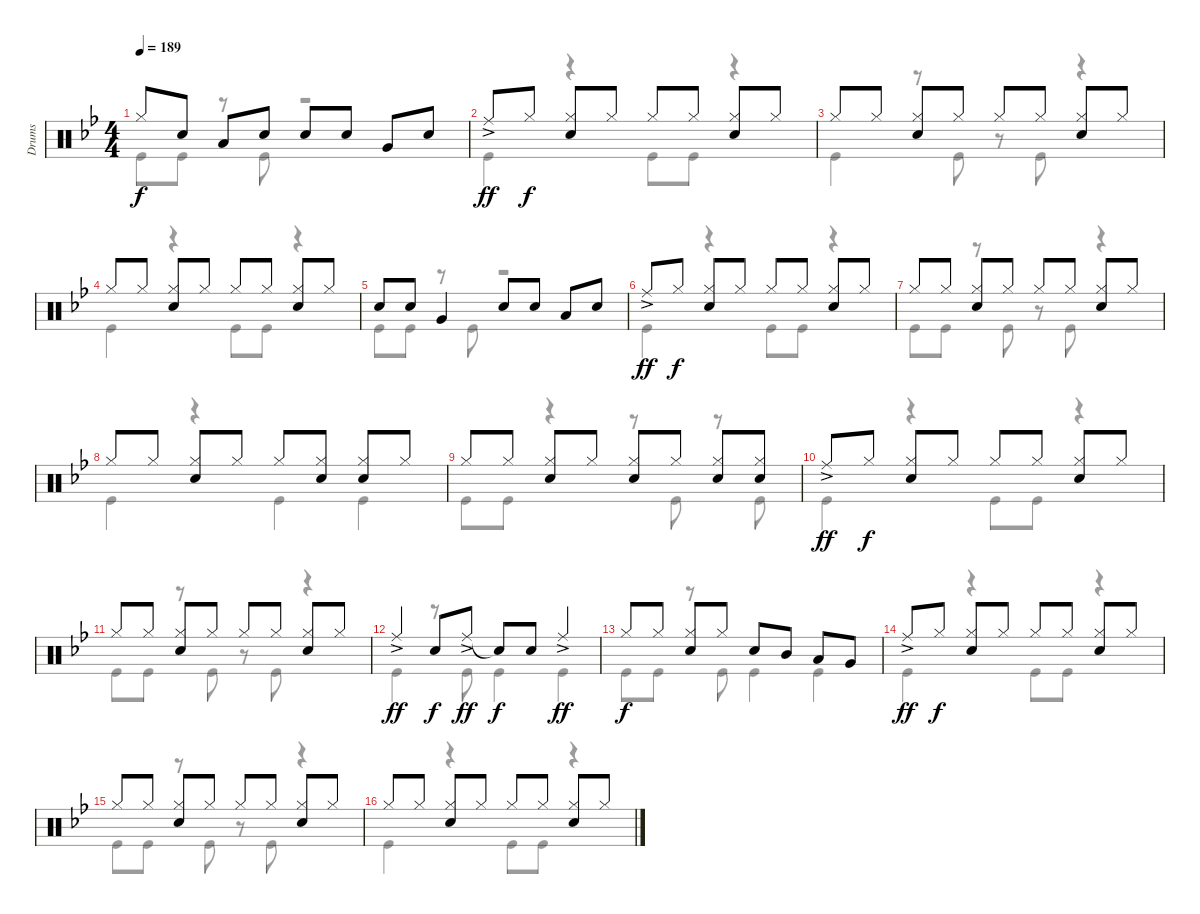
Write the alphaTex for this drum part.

\track ("Drums" "Drums") {instrument percussion}
\staff {score}
\articulation defaults
\voice
\ts (4 4)
\tempo 189
\clef neutral
\ks bb "Hi-Hat (closed)".8{dy f} "Snare (hit) 2".8 "Low Tom (hit)".8 "Snare (hit) 2".8 "Snare (hit) 2".8 "Snare (hit) 2".8 "Very Low Tom (hit)".8 "Snare (hit) 2".8
|
"Ride (middle)"{ac}.8{dy ff} "Hi-Hat (closed)".8{dy f} ("Hi-Hat (closed)" "Snare (hit) 2").8 "Hi-Hat (closed)".8 "Hi-Hat (closed)".8 "Hi-Hat (closed)".8 ("Hi-Hat (closed)" "Snare (hit) 2").8 "Hi-Hat (closed)".8 |
"Hi-Hat (closed)".8 "Hi-Hat (closed)".8 ("Hi-Hat (closed)" "Snare (hit) 2").8 "Hi-Hat (closed)".8 "Hi-Hat (closed)".8 "Hi-Hat (closed)".8 ("Hi-Hat (closed)" "Snare (hit) 2").8 "Hi-Hat (closed)".8 |
"Hi-Hat (closed)".8 "Hi-Hat (closed)".8 ("Hi-Hat (closed)" "Snare (hit) 2").8 "Hi-Hat (closed)".8 "Hi-Hat (closed)".8 "Hi-Hat (closed)".8 ("Hi-Hat (closed)" "Snare (hit) 2").8 "Hi-Hat (closed)".8 |
"Snare (hit) 2".8 "Snare (hit) 2".8 "Very Low Tom (hit)".4 "Snare (hit) 2".8 "Snare (hit) 2".8 "Low Tom (hit)".8 "Snare (hit) 2".8 |
"Ride (middle)"{ac}.8{dy ff} "Hi-Hat (closed)".8{dy f} ("Hi-Hat (closed)" "Snare (hit) 2").8 "Hi-Hat (closed)".8 "Hi-Hat (closed)".8 "Hi-Hat (closed)".8 ("Hi-Hat (closed)" "Snare (hit) 2").8 "Hi-Hat (closed)".8 |
"Hi-Hat (closed)".8 "Hi-Hat (closed)".8 ("Hi-Hat (closed)" "Snare (hit) 2").8 "Hi-Hat (closed)".8 "Hi-Hat (closed)".8 "Hi-Hat (closed)".8 ("Hi-Hat (closed)" "Snare (hit) 2").8 "Hi-Hat (closed)".8 |
"Hi-Hat (closed)".8 "Hi-Hat (closed)".8 ("Hi-Hat (closed)" "Snare (hit) 2").8 "Hi-Hat (closed)".8 "Hi-Hat (closed)".8 ("Hi-Hat (closed)" "Snare (hit) 2").8 ("Hi-Hat (closed)" "Snare (hit) 2").8 "Hi-Hat (closed)".8 |
"Hi-Hat (closed)".8 "Hi-Hat (closed)".8 ("Hi-Hat (closed)" "Snare (hit) 2").8 "Hi-Hat (closed)".8 ("Hi-Hat (closed)" "Snare (hit) 2").8 "Hi-Hat (closed)".8 ("Hi-Hat (closed)" "Snare (hit) 2").8 ("Hi-Hat (closed)" "Snare (hit) 2").8 |
"Ride (middle)"{ac}.8{dy ff} "Hi-Hat (closed)".8{dy f} ("Hi-Hat (closed)" "Snare (hit) 2").8 "Hi-Hat (closed)".8 "Hi-Hat (closed)".8 "Hi-Hat (closed)".8 ("Hi-Hat (closed)" "Snare (hit) 2").8 "Hi-Hat (closed)".8 |
"Hi-Hat (closed)".8 "Hi-Hat (closed)".8 ("Hi-Hat (closed)" "Snare (hit) 2").8 "Hi-Hat (closed)".8 "Hi-Hat (closed)".8 "Hi-Hat (closed)".8 ("Hi-Hat (closed)" "Snare (hit) 2").8 "Hi-Hat (closed)".8 |
"Ride (middle)"{ac}.4{dy ff} "Snare (hit) 2".8{dy f} "Ride (middle)"{ac}.8{dy ff} "Snare (hit)"{t}.8{dy f} "Snare (hit) 2".8 "Ride (middle)"{ac}.4{dy ff} |
"Hi-Hat (closed)".8{dy f} "Hi-Hat (closed)".8 ("Hi-Hat (closed)" "Snare (hit) 2").8 "Hi-Hat (closed)".8 "Snare (hit) 2".8 "Mid Tom (hit)".8 "Low Tom (hit)".8 "Very Low Tom (hit)".8 |
"Ride (middle)"{ac}.8{dy ff} "Hi-Hat (closed)".8{dy f} ("Hi-Hat (closed)" "Snare (hit) 2").8 "Hi-Hat (closed)".8 "Hi-Hat (closed)".8 "Hi-Hat (closed)".8 ("Hi-Hat (closed)" "Snare (hit) 2").8 "Hi-Hat (closed)".8 |
"Hi-Hat (closed)".8 "Hi-Hat (closed)".8 ("Hi-Hat (closed)" "Snare (hit) 2").8 "Hi-Hat (closed)".8 "Hi-Hat (closed)".8 "Hi-Hat (closed)".8 ("Hi-Hat (closed)" "Snare (hit) 2").8 "Hi-Hat (closed)".8 |
"Hi-Hat (closed)".8 "Hi-Hat (closed)".8 ("Hi-Hat (closed)" "Snare (hit) 2").8 "Hi-Hat (closed)".8 "Hi-Hat (closed)".8 "Hi-Hat (closed)".8 ("Hi-Hat (closed)" "Snare (hit) 2").8 "Hi-Hat (closed)".8
\voice
\clef neutral
\ottava regular
\simile none
\ks bb "Kick (hit)".8{dy f} "Kick (hit)".8
r.8 "Kick (hit)".8 r.2 |
"Kick (hit)".4 r.4 "Kick (hit)".8 "Kick (hit)".8 r.4 |
"Kick (hit)".4 r.8 "Kick (hit)".8 r.8 "Kick (hit)".8 r.4 |
"Kick (hit)".4 r.4 "Kick (hit)".8 "Kick (hit)".8 r.4 |
"Kick (hit)".8 "Kick (hit)".8 r.8 "Kick (hit)".8 r.2 |
"Kick (hit)".4 r.4 "Kick (hit)".8 "Kick (hit)".8 r.4 |
"Kick (hit)".8 "Kick (hit)".8 r.8 "Kick (hit)".8 r.8 "Kick (hit)".8 r.4 |
"Kick (hit)".4 r.4 "Kick (hit)".4 "Kick (hit)".4 |
"Kick (hit)".8 "Kick (hit)".8 r.4 r.8 "Kick (hit)".8 r.8 "Kick (hit)".8 |
"Kick (hit)".4 r.4 "Kick (hit)".8 "Kick (hit)".8 r.4 |
"Kick (hit)".8 "Kick (hit)".8 r.8 "Kick (hit)".8 r.8 "Kick (hit)".8 r.4 |
"Kick (hit)".4 r.8 "Kick (hit)".8 "Kick (hit)".4 "Kick (hit)".4 |
"Kick (hit)".8 "Kick (hit)".8 r.8 "Kick (hit)".8 "Kick (hit)".4 "Kick (hit)".4 |
"Kick (hit)".4 r.4 "Kick (hit)".8 "Kick (hit)".8 r.4 |
"Kick (hit)".8 "Kick (hit)".8 r.8 "Kick (hit)".8 r.8 "Kick (hit)".8 r.4 |
"Kick (hit)".4 r.4 "Kick (hit)".8 "Kick (hit)".8 r.4
